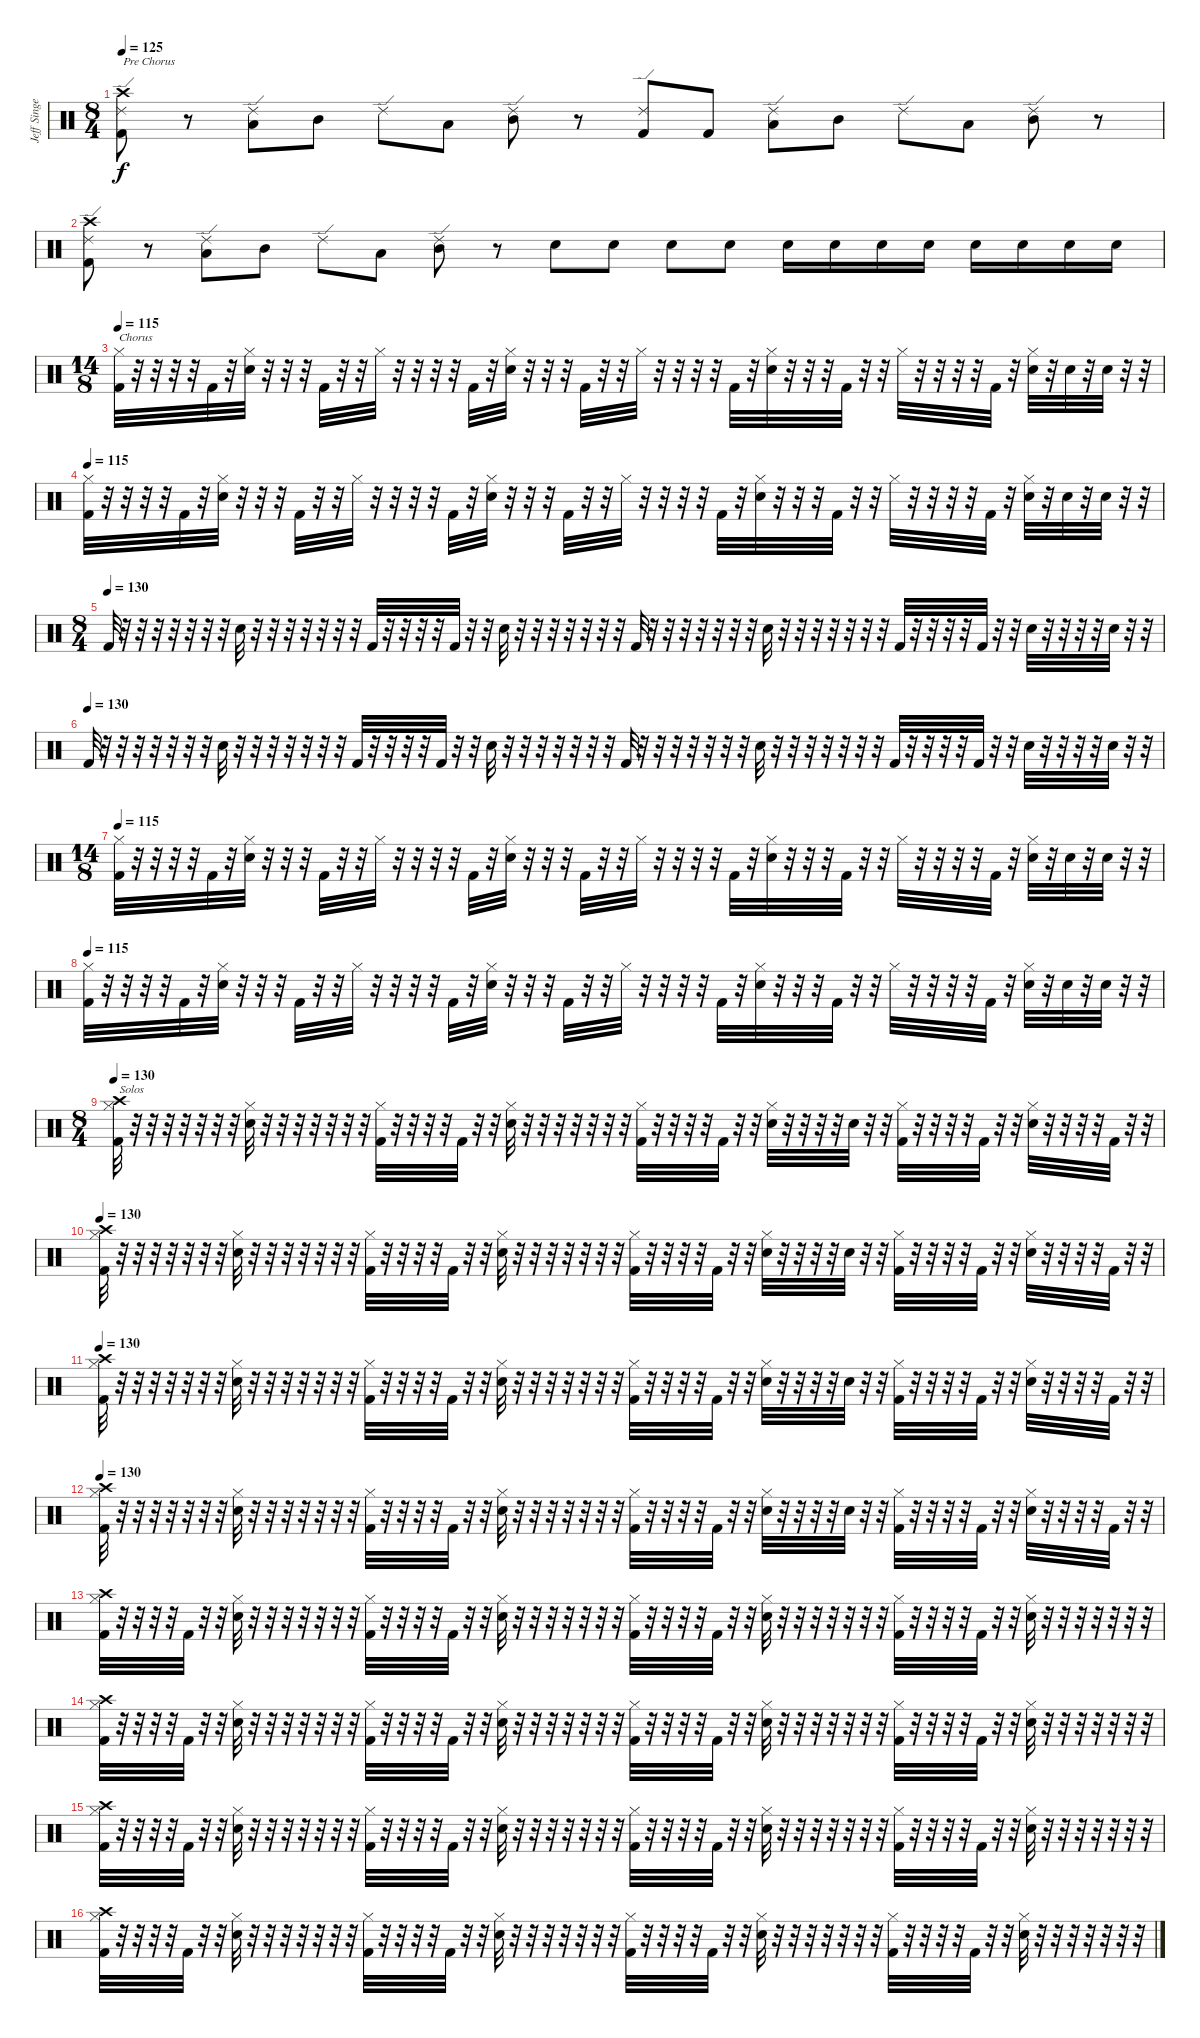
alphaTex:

\track ("Jeff Singer" "Jeff Singe") {instrument percussion}
\staff {score}
\articulation defaults
\ts (8 4)
\tempo 125
\clef neutral
\ks c
("Ride (edge) 2" "Kick (hit) 2" "Crash high (hit)").8{txt "Pre Chorus" dy f} r.8 ("Ride (edge) 2" "Low Floor Tom (hit)").8 "Mid Tom (hit)".8 "Ride (edge) 2".8 "Low Floor Tom (hit)".8 ("Ride (edge) 2" "Mid Tom (hit)").8 r.8 ("Ride (edge) 2" "Kick (hit) 2").8 "Kick (hit) 2".8 ("Ride (edge) 2" "Low Floor Tom (hit)").8 "Mid Tom (hit)".8 "Ride (edge) 2".8 "Low Floor Tom (hit)".8 ("Ride (edge) 2" "Mid Tom (hit)").8 r.8 |
("Ride (edge) 2" "Kick (hit) 2" "Crash high (hit)").8 r.8 ("Ride (edge) 2" "Low Floor Tom (hit)").8 "Mid Tom (hit)".8 "Ride (edge) 2".8 "Low Floor Tom (hit)".8 ("Ride (edge) 2" "Mid Tom (hit)").8 r.8 "Snare (hit) 2".8 "Snare (hit) 2".8 "Snare (hit) 2".8 "Snare (hit) 2".8 "Snare (hit) 2".16 "Snare (hit) 2".16 "Snare (hit) 2".16 "Snare (hit) 2".16 "Snare (hit) 2".16 "Snare (hit) 2".16 "Snare (hit) 2".16 "Snare (hit) 2".16 |
\ts (14 8)
\tempo 115
("Hi-Hat (closed)" "Kick (hit) 2").32{txt "Chorus"} r.32 r.32 r.32 r.32 "Kick (hit) 2".32 r.32 ("Hi-Hat (closed)" "Snare (hit) 2").32 r.32 r.32 r.32 "Kick (hit) 2".32 r.32 r.32 "Hi-Hat (closed)".32 r.32 r.32 r.32 r.32 "Kick (hit) 2".32 r.32 ("Hi-Hat (closed)" "Snare (hit) 2").32 r.32 r.32 r.32 "Kick (hit) 2".32 r.32 r.32 "Hi-Hat (closed)".32 r.32 r.32 r.32 r.32 "Kick (hit) 2".32 r.32 ("Hi-Hat (closed)" "Snare (hit) 2").32 r.32 r.32 r.32 "Kick (hit) 2".32 r.32 r.32 "Hi-Hat (closed)".32 r.32 r.32 r.32 r.32 "Kick (hit) 2".32 r.32 ("Hi-Hat (closed)" "Snare (hit) 2").32 r.32 "Snare (hit) 2".32 r.32 "Snare (hit) 2".32 r.32 r.32 |
\tempo 115
("Hi-Hat (closed)" "Kick (hit) 2").32 r.32 r.32 r.32 r.32 "Kick (hit) 2".32 r.32 ("Hi-Hat (closed)" "Snare (hit) 2").32 r.32 r.32 r.32 "Kick (hit) 2".32 r.32 r.32 "Hi-Hat (closed)".32 r.32 r.32 r.32 r.32 "Kick (hit) 2".32 r.32 ("Hi-Hat (closed)" "Snare (hit) 2").32 r.32 r.32 r.32 "Kick (hit) 2".32 r.32 r.32 "Hi-Hat (closed)".32 r.32 r.32 r.32 r.32 "Kick (hit) 2".32 r.32 ("Hi-Hat (closed)" "Snare (hit) 2").32 r.32 r.32 r.32 "Kick (hit) 2".32 r.32 r.32 "Hi-Hat (closed)".32 r.32 r.32 r.32 r.32 "Kick (hit) 2".32 r.32 ("Hi-Hat (closed)" "Snare (hit) 2").32 r.32 "Snare (hit) 2".32 r.32 "Snare (hit) 2".32 r.32 r.32 |
\ts (8 4)
\tempo (130)
"Kick (hit) 2".32 r.32 r.32 r.32 r.32 r.32 r.32 r.32 "Snare (hit) 2".32 r.32 r.32 r.32 r.32 r.32 r.32 r.32 "Kick (hit) 2".32 r.32 r.32 r.32 r.32 "Kick (hit) 2".32 r.32 r.32 "Snare (hit) 2".32 r.32 r.32 r.32 r.32 r.32 r.32 r.32 "Kick (hit) 2".32 r.32 r.32 r.32 r.32 r.32 r.32 r.32 "Snare (hit) 2".32 r.32 r.32 r.32 r.32 r.32 r.32 r.32 "Kick (hit) 2".32 r.32 r.32 r.32 r.32 "Kick (hit) 2".32 r.32 r.32 "Snare (hit) 2".32 r.32 r.32 r.32 r.32 "Snare (hit) 2".32 r.32 r.32 |
\tempo (130)
"Kick (hit) 2".32 r.32 r.32 r.32 r.32 r.32 r.32 r.32 "Snare (hit) 2".32 r.32 r.32 r.32 r.32 r.32 r.32 r.32 "Kick (hit) 2".32 r.32 r.32 r.32 r.32 "Kick (hit) 2".32 r.32 r.32 "Snare (hit) 2".32 r.32 r.32 r.32 r.32 r.32 r.32 r.32 "Kick (hit) 2".32 r.32 r.32 r.32 r.32 r.32 r.32 r.32 "Snare (hit) 2".32 r.32 r.32 r.32 r.32 r.32 r.32 r.32 "Kick (hit) 2".32 r.32 r.32 r.32 r.32 "Kick (hit) 2".32 r.32 r.32 "Snare (hit) 2".32 r.32 r.32 r.32 r.32 "Snare (hit) 2".32 r.32 r.32 |
\ts (14 8)
\tempo 115
("Hi-Hat (closed)" "Kick (hit) 2").32 r.32 r.32 r.32 r.32 "Kick (hit) 2".32 r.32 ("Hi-Hat (closed)" "Snare (hit) 2").32 r.32 r.32 r.32 "Kick (hit) 2".32 r.32 r.32 "Hi-Hat (closed)".32 r.32 r.32 r.32 r.32 "Kick (hit) 2".32 r.32 ("Hi-Hat (closed)" "Snare (hit) 2").32 r.32 r.32 r.32 "Kick (hit) 2".32 r.32 r.32 "Hi-Hat (closed)".32 r.32 r.32 r.32 r.32 "Kick (hit) 2".32 r.32 ("Hi-Hat (closed)" "Snare (hit) 2").32 r.32 r.32 r.32 "Kick (hit) 2".32 r.32 r.32 "Hi-Hat (closed)".32 r.32 r.32 r.32 r.32 "Kick (hit) 2".32 r.32 ("Hi-Hat (closed)" "Snare (hit) 2").32 r.32 "Snare (hit) 2".32 r.32 "Snare (hit) 2".32 r.32 r.32 |
\tempo 115
("Hi-Hat (closed)" "Kick (hit) 2").32 r.32 r.32 r.32 r.32 "Kick (hit) 2".32 r.32 ("Hi-Hat (closed)" "Snare (hit) 2").32 r.32 r.32 r.32 "Kick (hit) 2".32 r.32 r.32 "Hi-Hat (closed)".32 r.32 r.32 r.32 r.32 "Kick (hit) 2".32 r.32 ("Hi-Hat (closed)" "Snare (hit) 2").32 r.32 r.32 r.32 "Kick (hit) 2".32 r.32 r.32 "Hi-Hat (closed)".32 r.32 r.32 r.32 r.32 "Kick (hit) 2".32 r.32 ("Hi-Hat (closed)" "Snare (hit) 2").32 r.32 r.32 r.32 "Kick (hit) 2".32 r.32 r.32 "Hi-Hat (closed)".32 r.32 r.32 r.32 r.32 "Kick (hit) 2".32 r.32 ("Hi-Hat (closed)" "Snare (hit) 2").32 r.32 "Snare (hit) 2".32 r.32 "Snare (hit) 2".32 r.32 r.32 |
\ts (8 4)
\tempo 130
("Hi-Hat (closed)" "Kick (hit) 2" "Crash high (hit)").32{txt "Solos"} r.32 r.32 r.32 r.32 r.32 r.32 r.32 ("Hi-Hat (closed)" "Snare (hit) 2").32 r.32 r.32 r.32 r.32 r.32 r.32 r.32 ("Hi-Hat (closed)" "Kick (hit) 2").32 r.32 r.32 r.32 r.32 "Kick (hit) 2".32 r.32 r.32 ("Hi-Hat (closed)" "Snare (hit) 2").32 r.32 r.32 r.32 r.32 r.32 r.32 r.32 ("Hi-Hat (closed)" "Kick (hit) 2").32 r.32 r.32 r.32 r.32 "Kick (hit) 2".32 r.32 r.32 ("Hi-Hat (closed)" "Snare (hit) 2").32 r.32 r.32 r.32 r.32 "Snare (hit) 2".32 r.32 r.32 ("Hi-Hat (closed)" "Kick (hit) 2").32 r.32 r.32 r.32 r.32 "Kick (hit) 2".32 r.32 r.32 ("Hi-Hat (closed)" "Snare (hit) 2").32 r.32 r.32 r.32 r.32 "Kick (hit) 2".32 r.32 r.32 |
\tempo 130
("Hi-Hat (closed)" "Kick (hit) 2" "Crash high (hit)").32 r.32 r.32 r.32 r.32 r.32 r.32 r.32 ("Hi-Hat (closed)" "Snare (hit) 2").32 r.32 r.32 r.32 r.32 r.32 r.32 r.32 ("Hi-Hat (closed)" "Kick (hit) 2").32 r.32 r.32 r.32 r.32 "Kick (hit) 2".32 r.32 r.32 ("Hi-Hat (closed)" "Snare (hit) 2").32 r.32 r.32 r.32 r.32 r.32 r.32 r.32 ("Hi-Hat (closed)" "Kick (hit) 2").32 r.32 r.32 r.32 r.32 "Kick (hit) 2".32 r.32 r.32 ("Hi-Hat (closed)" "Snare (hit) 2").32 r.32 r.32 r.32 r.32 "Snare (hit) 2".32 r.32 r.32 ("Hi-Hat (closed)" "Kick (hit) 2").32 r.32 r.32 r.32 r.32 "Kick (hit) 2".32 r.32 r.32 ("Hi-Hat (closed)" "Snare (hit) 2").32 r.32 r.32 r.32 r.32 "Kick (hit) 2".32 r.32 r.32 |
\tempo 130
("Hi-Hat (closed)" "Kick (hit) 2" "Crash high (hit)").32 r.32 r.32 r.32 r.32 r.32 r.32 r.32 ("Hi-Hat (closed)" "Snare (hit) 2").32 r.32 r.32 r.32 r.32 r.32 r.32 r.32 ("Hi-Hat (closed)" "Kick (hit) 2").32 r.32 r.32 r.32 r.32 "Kick (hit) 2".32 r.32 r.32 ("Hi-Hat (closed)" "Snare (hit) 2").32 r.32 r.32 r.32 r.32 r.32 r.32 r.32 ("Hi-Hat (closed)" "Kick (hit) 2").32 r.32 r.32 r.32 r.32 "Kick (hit) 2".32 r.32 r.32 ("Hi-Hat (closed)" "Snare (hit) 2").32 r.32 r.32 r.32 r.32 "Snare (hit) 2".32 r.32 r.32 ("Hi-Hat (closed)" "Kick (hit) 2").32 r.32 r.32 r.32 r.32 "Kick (hit) 2".32 r.32 r.32 ("Hi-Hat (closed)" "Snare (hit) 2").32 r.32 r.32 r.32 r.32 "Kick (hit) 2".32 r.32 r.32 |
\tempo 130
("Hi-Hat (closed)" "Kick (hit) 2" "Crash high (hit)").32 r.32 r.32 r.32 r.32 r.32 r.32 r.32 ("Hi-Hat (closed)" "Snare (hit) 2").32 r.32 r.32 r.32 r.32 r.32 r.32 r.32 ("Hi-Hat (closed)" "Kick (hit) 2").32 r.32 r.32 r.32 r.32 "Kick (hit) 2".32 r.32 r.32 ("Hi-Hat (closed)" "Snare (hit) 2").32 r.32 r.32 r.32 r.32 r.32 r.32 r.32 ("Hi-Hat (closed)" "Kick (hit) 2").32 r.32 r.32 r.32 r.32 "Kick (hit) 2".32 r.32 r.32 ("Hi-Hat (closed)" "Snare (hit) 2").32 r.32 r.32 r.32 r.32 "Snare (hit) 2".32 r.32 r.32 ("Hi-Hat (closed)" "Kick (hit) 2").32 r.32 r.32 r.32 r.32 "Kick (hit) 2".32 r.32 r.32 ("Hi-Hat (closed)" "Snare (hit) 2").32 r.32 r.32 r.32 r.32 "Kick (hit) 2".32 r.32 r.32 |
("Hi-Hat (closed)" "Kick (hit) 2" "Crash high (hit)").32 r.32 r.32 r.32 r.32 "Kick (hit) 2".32 r.32 r.32 ("Hi-Hat (closed)" "Snare (hit) 2").32 r.32 r.32 r.32 r.32 r.32 r.32 r.32 ("Hi-Hat (closed)" "Kick (hit) 2").32 r.32 r.32 r.32 r.32 "Kick (hit) 2".32 r.32 r.32 ("Hi-Hat (closed)" "Snare (hit) 2").32 r.32 r.32 r.32 r.32 r.32 r.32 r.32 ("Hi-Hat (closed)" "Kick (hit) 2").32 r.32 r.32 r.32 r.32 "Kick (hit) 2".32 r.32 r.32 ("Hi-Hat (closed)" "Snare (hit) 2").32 r.32 r.32 r.32 r.32 r.32 r.32 r.32 ("Hi-Hat (closed)" "Kick (hit) 2").32 r.32 r.32 r.32 r.32 "Kick (hit) 2".32 r.32 r.32 ("Hi-Hat (closed)" "Snare (hit) 2").32 r.32 r.32 r.32 r.32 r.32 r.32 r.32 |
("Hi-Hat (closed)" "Kick (hit) 2" "Crash high (hit)").32 r.32 r.32 r.32 r.32 "Kick (hit) 2".32 r.32 r.32 ("Hi-Hat (closed)" "Snare (hit) 2").32 r.32 r.32 r.32 r.32 r.32 r.32 r.32 ("Hi-Hat (closed)" "Kick (hit) 2").32 r.32 r.32 r.32 r.32 "Kick (hit) 2".32 r.32 r.32 ("Hi-Hat (closed)" "Snare (hit) 2").32 r.32 r.32 r.32 r.32 r.32 r.32 r.32 ("Hi-Hat (closed)" "Kick (hit) 2").32 r.32 r.32 r.32 r.32 "Kick (hit) 2".32 r.32 r.32 ("Hi-Hat (closed)" "Snare (hit) 2").32 r.32 r.32 r.32 r.32 r.32 r.32 r.32 ("Hi-Hat (closed)" "Kick (hit) 2").32 r.32 r.32 r.32 r.32 "Kick (hit) 2".32 r.32 r.32 ("Hi-Hat (closed)" "Snare (hit) 2").32 r.32 r.32 r.32 r.32 r.32 r.32 r.32 |
("Hi-Hat (closed)" "Kick (hit) 2" "Crash high (hit)").32 r.32 r.32 r.32 r.32 "Kick (hit) 2".32 r.32 r.32 ("Hi-Hat (closed)" "Snare (hit) 2").32 r.32 r.32 r.32 r.32 r.32 r.32 r.32 ("Hi-Hat (closed)" "Kick (hit) 2").32 r.32 r.32 r.32 r.32 "Kick (hit) 2".32 r.32 r.32 ("Hi-Hat (closed)" "Snare (hit) 2").32 r.32 r.32 r.32 r.32 r.32 r.32 r.32 ("Hi-Hat (closed)" "Kick (hit) 2").32 r.32 r.32 r.32 r.32 "Kick (hit) 2".32 r.32 r.32 ("Hi-Hat (closed)" "Snare (hit) 2").32 r.32 r.32 r.32 r.32 r.32 r.32 r.32 ("Hi-Hat (closed)" "Kick (hit) 2").32 r.32 r.32 r.32 r.32 "Kick (hit) 2".32 r.32 r.32 ("Hi-Hat (closed)" "Snare (hit) 2").32 r.32 r.32 r.32 r.32 r.32 r.32 r.32 |
("Hi-Hat (closed)" "Kick (hit) 2" "Crash high (hit)").32 r.32 r.32 r.32 r.32 "Kick (hit) 2".32 r.32 r.32 ("Hi-Hat (closed)" "Snare (hit) 2").32 r.32 r.32 r.32 r.32 r.32 r.32 r.32 ("Hi-Hat (closed)" "Kick (hit) 2").32 r.32 r.32 r.32 r.32 "Kick (hit) 2".32 r.32 r.32 ("Hi-Hat (closed)" "Snare (hit) 2").32 r.32 r.32 r.32 r.32 r.32 r.32 r.32 ("Hi-Hat (closed)" "Kick (hit) 2").32 r.32 r.32 r.32 r.32 "Kick (hit) 2".32 r.32 r.32 ("Hi-Hat (closed)" "Snare (hit) 2").32 r.32 r.32 r.32 r.32 r.32 r.32 r.32 ("Hi-Hat (closed)" "Kick (hit) 2").32 r.32 r.32 r.32 r.32 "Kick (hit) 2".32 r.32 r.32 ("Hi-Hat (closed)" "Snare (hit) 2").32 r.32 r.32 r.32 r.32 r.32 r.32 r.32
